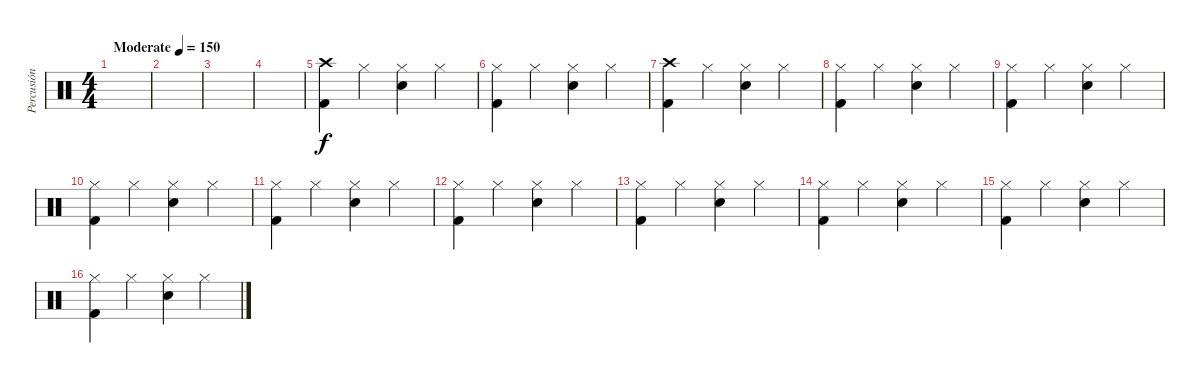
\track ("Percusión" "Percusión") {instrument percussion}
\staff {score}
\articulation defaults
\ts (4 4)
\tempo (150 "Moderate")
\clef neutral
\ks c
|
|
|
|
("Kick (hit) 2" "Crash high (hit)").4 "Hi-Hat (closed)".4 ("Snare (hit) 2" "Hi-Hat (closed)").4 "Hi-Hat (closed)".4 |
("Kick (hit) 2" "Hi-Hat (closed)").4 "Hi-Hat (closed)".4 ("Snare (hit) 2" "Hi-Hat (closed)").4 "Hi-Hat (closed)".4 |
("Kick (hit) 2" "Crash high (hit)").4 "Hi-Hat (closed)".4 ("Snare (hit) 2" "Hi-Hat (closed)").4 "Hi-Hat (closed)".4 |
("Kick (hit) 2" "Hi-Hat (closed)").4 "Hi-Hat (closed)".4 ("Snare (hit) 2" "Hi-Hat (closed)").4 "Hi-Hat (closed)".4 |
("Kick (hit) 2" "Hi-Hat (closed)").4 "Hi-Hat (closed)".4 ("Snare (hit) 2" "Hi-Hat (closed)").4 "Hi-Hat (closed)".4 |
("Kick (hit) 2" "Hi-Hat (closed)").4 "Hi-Hat (closed)".4 ("Snare (hit) 2" "Hi-Hat (closed)").4 "Hi-Hat (closed)".4 |
("Kick (hit) 2" "Hi-Hat (closed)").4 "Hi-Hat (closed)".4 ("Snare (hit) 2" "Hi-Hat (closed)").4 "Hi-Hat (closed)".4 |
("Kick (hit) 2" "Hi-Hat (closed)").4 "Hi-Hat (closed)".4 ("Snare (hit) 2" "Hi-Hat (closed)").4 "Hi-Hat (closed)".4 |
("Kick (hit) 2" "Hi-Hat (closed)").4 "Hi-Hat (closed)".4 ("Snare (hit) 2" "Hi-Hat (closed)").4 "Hi-Hat (closed)".4 |
("Kick (hit) 2" "Hi-Hat (closed)").4 "Hi-Hat (closed)".4 ("Snare (hit) 2" "Hi-Hat (closed)").4 "Hi-Hat (closed)".4 |
("Kick (hit) 2" "Hi-Hat (closed)").4 "Hi-Hat (closed)".4 ("Snare (hit) 2" "Hi-Hat (closed)").4 "Hi-Hat (closed)".4 |
("Kick (hit) 2" "Hi-Hat (closed)").4 "Hi-Hat (closed)".4 ("Snare (hit) 2" "Hi-Hat (closed)").4 "Hi-Hat (closed)".4
